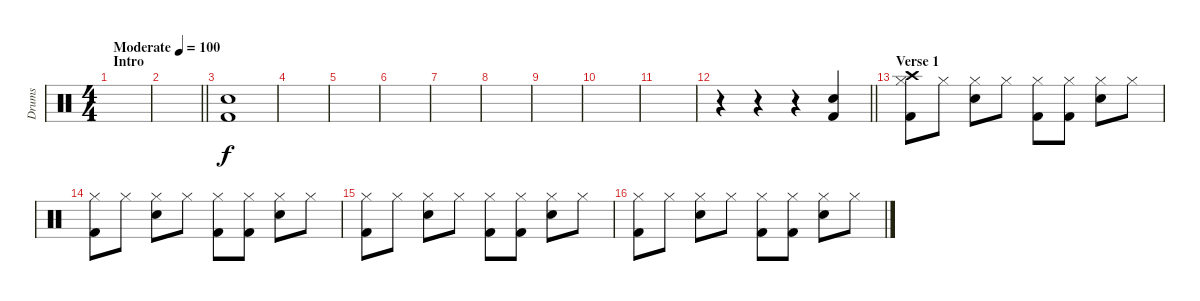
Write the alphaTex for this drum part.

\track ("Drums" "Drums") {instrument percussion}
\staff {score}
\articulation defaults
\ts (4 4)
\section ("" "Intro")
\tempo (100 "Moderate")
\clef neutral
\ks c
|
\barLineRight lightlight
|
\section ("" "")
("Snare (hit) 2" "Kick (hit) 2").1 |
|
|
|
|
|
|
|
|
\barLineRight lightlight
r.4 r.4 r.4 ("Snare (hit) 2" "Kick (hit) 2").4 |
\section ("" "Verse 1")
("Crash high (hit)" "Hi-Hat (closed)" "Kick (hit) 2").8 "Hi-Hat (closed)".8 ("Hi-Hat (closed)" "Snare (hit) 2").8 "Hi-Hat (closed)".8 ("Hi-Hat (closed)" "Kick (hit) 2").8 ("Hi-Hat (closed)" "Kick (hit) 2").8 ("Hi-Hat (closed)" "Snare (hit) 2").8 "Hi-Hat (closed)".8 |
("Hi-Hat (closed)" "Kick (hit) 2").8 "Hi-Hat (closed)".8 ("Hi-Hat (closed)" "Snare (hit) 2").8 "Hi-Hat (closed)".8 ("Hi-Hat (closed)" "Kick (hit) 2").8 ("Hi-Hat (closed)" "Kick (hit) 2").8 ("Hi-Hat (closed)" "Snare (hit) 2").8 "Hi-Hat (closed)".8 |
("Hi-Hat (closed)" "Kick (hit) 2").8 "Hi-Hat (closed)".8 ("Hi-Hat (closed)" "Snare (hit) 2").8 "Hi-Hat (closed)".8 ("Hi-Hat (closed)" "Kick (hit) 2").8 ("Hi-Hat (closed)" "Kick (hit) 2").8 ("Hi-Hat (closed)" "Snare (hit) 2").8 "Hi-Hat (closed)".8 |
("Hi-Hat (closed)" "Kick (hit) 2").8 "Hi-Hat (closed)".8 ("Hi-Hat (closed)" "Snare (hit) 2").8 "Hi-Hat (closed)".8 ("Hi-Hat (closed)" "Kick (hit) 2").8 ("Hi-Hat (closed)" "Kick (hit) 2").8 ("Hi-Hat (closed)" "Snare (hit) 2").8 "Hi-Hat (closed)".8
